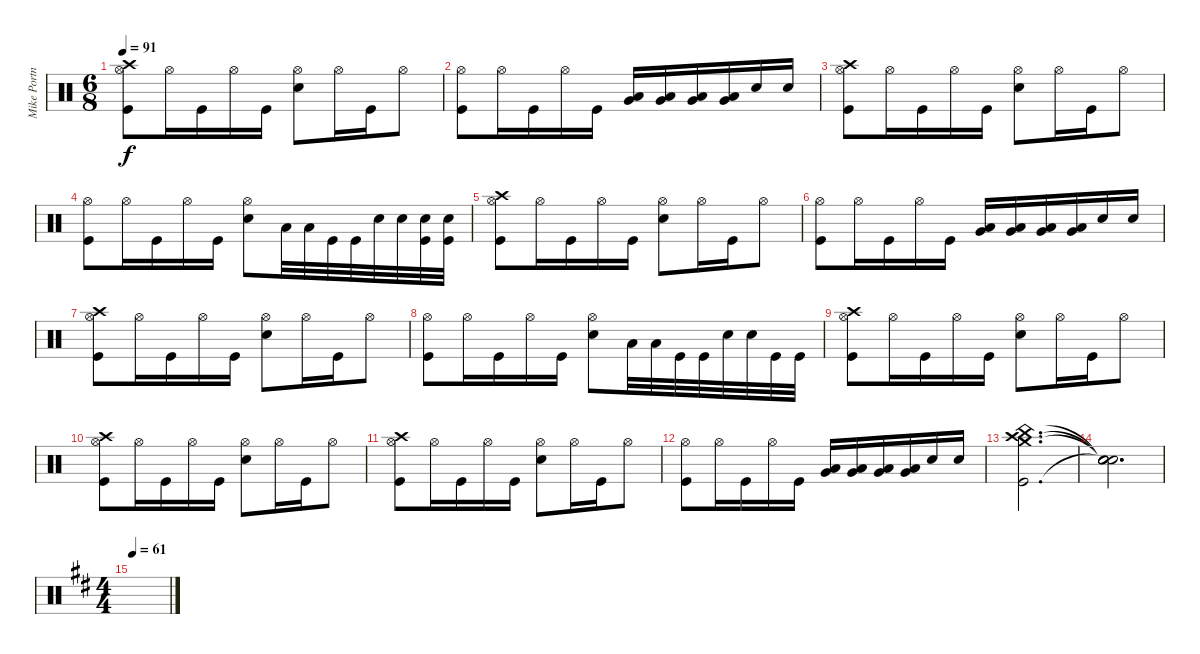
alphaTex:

\track ("Mike Portnoy - Drums" "Mike Portn") {instrument percussion}
\staff {score}
\articulation defaults
\ts (6 8)
\tempo 91
\clef neutral
\ks aminor
("Hi-Hat (open)" "Crash high (hit)" "Kick (hit)").8{dy f} "Hi-Hat (open)".16 "Kick (hit)".16 "Hi-Hat (open)".16 "Kick (hit)".16 ("Hi-Hat (open)" "Snare (hit) 2").8 "Hi-Hat (open)".16 "Kick (hit)".16 "Hi-Hat (open)".8 |
("Hi-Hat (open)" "Kick (hit)").8 "Hi-Hat (open)".16 "Kick (hit)".16 "Hi-Hat (open)".16 "Kick (hit)".16 ("Low Tom (hit)" "Very Low Tom (hit)").16 ("Low Tom (hit)" "Very Low Tom (hit)").16 ("Low Tom (hit)" "Very Low Tom (hit)").16 ("Low Tom (hit)" "Very Low Tom (hit)").16 "Snare (hit) 2".16 "Snare (hit) 2".16 |
("Hi-Hat (open)" "Crash high (hit)" "Kick (hit)").8 "Hi-Hat (open)".16 "Kick (hit)".16 "Hi-Hat (open)".16 "Kick (hit)".16 ("Hi-Hat (open)" "Snare (hit) 2").8 "Hi-Hat (open)".16 "Kick (hit)".16 "Hi-Hat (open)".8 |
("Hi-Hat (open)" "Kick (hit)").8 "Hi-Hat (open)".16 "Kick (hit)".16 "Hi-Hat (open)".16 "Kick (hit)".16 ("Hi-Hat (open)" "Snare (hit) 2").8 "Low Tom (hit)".32 "Low Tom (hit)".32 "Kick (hit)".32 "Kick (hit)".32 "Snare (hit) 2".32 "Snare (hit) 2".32 ("Snare (hit) 2" "Kick (hit)").32 ("Snare (hit) 2" "Kick (hit)").32 |
("Hi-Hat (open)" "Crash high (hit)" "Kick (hit)").8 "Hi-Hat (open)".16 "Kick (hit)".16 "Hi-Hat (open)".16 "Kick (hit)".16 ("Hi-Hat (open)" "Snare (hit) 2").8 "Hi-Hat (open)".16 "Kick (hit)".16 "Hi-Hat (open)".8 |
("Hi-Hat (open)" "Kick (hit)").8 "Hi-Hat (open)".16 "Kick (hit)".16 "Hi-Hat (open)".16 "Kick (hit)".16 ("Low Tom (hit)" "Very Low Tom (hit)").16 ("Low Tom (hit)" "Very Low Tom (hit)").16 ("Low Tom (hit)" "Very Low Tom (hit)").16 ("Low Tom (hit)" "Very Low Tom (hit)").16 "Snare (hit) 2".16 "Snare (hit) 2".16 |
("Hi-Hat (open)" "Crash high (hit)" "Kick (hit)").8 "Hi-Hat (open)".16 "Kick (hit)".16 "Hi-Hat (open)".16 "Kick (hit)".16 ("Hi-Hat (open)" "Snare (hit) 2").8 "Hi-Hat (open)".16 "Kick (hit)".16 "Hi-Hat (open)".8 |
("Hi-Hat (open)" "Kick (hit)").8 "Hi-Hat (open)".16 "Kick (hit)".16 "Hi-Hat (open)".16 "Kick (hit)".16 ("Hi-Hat (open)" "Snare (hit) 2").8 "Low Tom (hit)".32 "Low Tom (hit)".32 "Kick (hit)".32 "Kick (hit)".32 "Snare (hit) 2".32 "Snare (hit) 2".32 "Kick (hit)".32 "Kick (hit)".32 |
("Hi-Hat (open)" "Crash high (hit)" "Kick (hit)").8 "Hi-Hat (open)".16 "Kick (hit)".16 "Hi-Hat (open)".16 "Kick (hit)".16 ("Hi-Hat (open)" "Snare (hit) 2").8 "Hi-Hat (open)".16 "Kick (hit)".16 "Hi-Hat (open)".8 |
("Hi-Hat (open)" "Crash high (hit)" "Kick (hit)").8 "Hi-Hat (open)".16 "Kick (hit)".16 "Hi-Hat (open)".16 "Kick (hit)".16 ("Hi-Hat (open)" "Snare (hit) 2").8 "Hi-Hat (open)".16 "Kick (hit)".16 "Hi-Hat (open)".8 |
("Hi-Hat (open)" "Crash high (hit)" "Kick (hit)").8 "Hi-Hat (open)".16 "Kick (hit)".16 "Hi-Hat (open)".16 "Kick (hit)".16 ("Hi-Hat (open)" "Snare (hit) 2").8 "Hi-Hat (open)".16 "Kick (hit)".16 "Hi-Hat (open)".8 |
("Hi-Hat (open)" "Kick (hit)").8 "Hi-Hat (open)".16 "Kick (hit)".16 "Hi-Hat (open)".16 "Kick (hit)".16 ("Low Tom (hit)" "Very Low Tom (hit)").16 ("Low Tom (hit)" "Very Low Tom (hit)").16 ("Low Tom (hit)" "Very Low Tom (hit)").16 ("Low Tom (hit)" "Very Low Tom (hit)").16 "Snare (hit) 2".16 "Snare (hit) 2".16 |
("Crash high (hit)" "China (hit)" "Crash medium (hit)" "Kick (hit)").2{d} |
("Snare (hit)"{t} "Snare (hit)"{t} "Snare (hit)"{t} "Snare (hit)"{t}).2{d} |
\ts (4 4)
\tempo 61
\ks bminor
